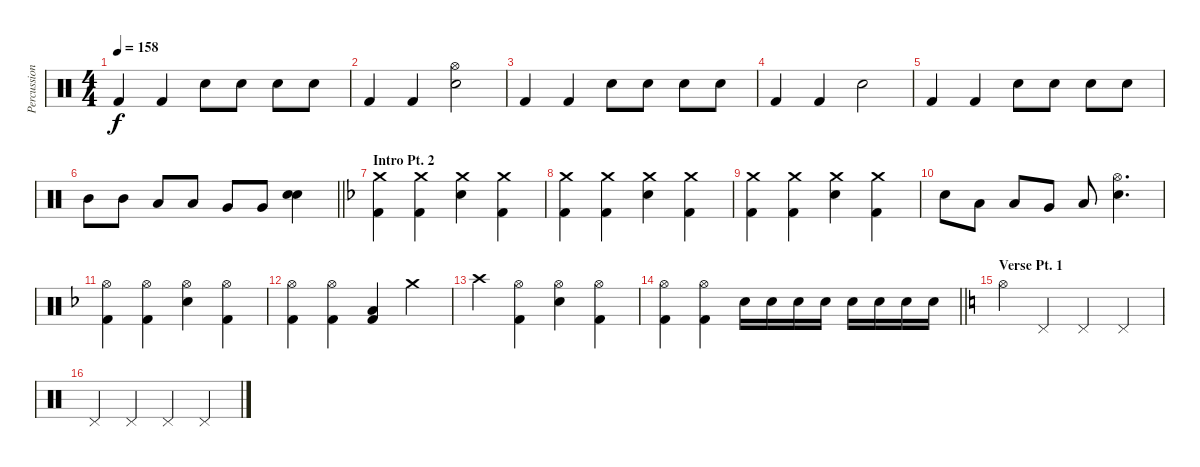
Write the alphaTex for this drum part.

\track ("Percussion" "Percussion") {instrument percussion}
\staff {score}
\articulation defaults
\ts (4 4)
\tempo 158
\clef neutral
\ks c "Kick (hit) 2".4{dy f} "Kick (hit) 2".4 "Electric Snare (hit)".8 "Electric Snare (hit)".8 "Electric Snare (hit)".8 "Electric Snare (hit)".8
|
"Kick (hit) 2".4 "Kick (hit) 2".4 ("Hi-Hat (open)" "Electric Snare (hit)").2 |
"Kick (hit) 2".4 "Kick (hit) 2".4 "Electric Snare (hit)".8 "Electric Snare (hit)".8 "Electric Snare (hit)".8 "Electric Snare (hit)".8 |
"Kick (hit) 2".4 "Kick (hit) 2".4 "Electric Snare (hit)".2 |
"Kick (hit) 2".4 "Kick (hit) 2".4 "Electric Snare (hit)".8 "Electric Snare (hit)".8 "Electric Snare (hit)".8 "Electric Snare (hit)".8 |
\barLineRight lightlight "Mid Tom (hit)".8 "Mid Tom (hit)".8 "Low Tom (hit)".8 "Low Tom (hit)".8 "Very Low Tom (hit)".8 "Very Low Tom (hit)".8
("Electric Snare (hit)" "Electric Snare (hit)").4 |
\section ("" "Intro Pt. 2")
\ks f
("Crash medium (hit)" "Kick (hit) 2").4 ("Crash medium (hit)" "Kick (hit) 2").4 ("Crash medium (hit)" "Electric Snare (hit)").4 ("Crash medium (hit)" "Kick (hit) 2").4 |
("Crash medium (hit)" "Kick (hit) 2").4 ("Crash medium (hit)" "Kick (hit) 2").4 ("Crash medium (hit)" "Electric Snare (hit)").4 ("Crash medium (hit)" "Kick (hit) 2").4 |
("Crash medium (hit)" "Kick (hit) 2").4 ("Crash medium (hit)" "Kick (hit) 2").4 ("Crash medium (hit)" "Electric Snare (hit)").4 ("Crash medium (hit)" "Kick (hit) 2").4 |
"Electric Snare (hit)".8 "Low Tom (hit)".8 "Low Tom (hit)".8 "Very Low Tom (hit)".8 "Low Floor Tom (hit)".8 ("Hi-Hat (open)" "Electric Snare (hit)").4{d} |
("Hi-Hat (open)" "Kick (hit) 2").4 ("Hi-Hat (open)" "Kick (hit) 2").4 ("Hi-Hat (open)" "Electric Snare (hit)").4 ("Hi-Hat (open)" "Kick (hit) 2").4 |
("Hi-Hat (open)" "Kick (hit) 2").4 ("Hi-Hat (open)" "Kick (hit) 2").4 ("Low Floor Tom (hit)" "Kick (hit) 2").4 "Crash medium (hit)".4 |
"Crash high (hit)".4 ("Hi-Hat (open)" "Kick (hit) 2").4 ("Hi-Hat (open)" "Electric Snare (hit)").4 ("Hi-Hat (open)" "Kick (hit) 2").4 |
\barLineRight lightlight
("Hi-Hat (open)" "Kick (hit) 2").4 ("Hi-Hat (open)" "Kick (hit) 2").4 "Electric Snare (hit)".16 "Electric Snare (hit)".16 "Electric Snare (hit)".16 "Electric Snare (hit)".16 "Electric Snare (hit)".16 "Electric Snare (hit)".16 "Electric Snare (hit)".16 "Electric Snare (hit)".16 |
\section ("" "Verse Pt. 1")
\ks c "Hi-Hat (open)".4 "Pedal Hi-Hat (hit)".4 "Pedal Hi-Hat (hit)".4 "Pedal Hi-Hat (hit)".4
|
"Pedal Hi-Hat (hit)".4 "Pedal Hi-Hat (hit)".4 "Pedal Hi-Hat (hit)".4 "Pedal Hi-Hat (hit)".4
